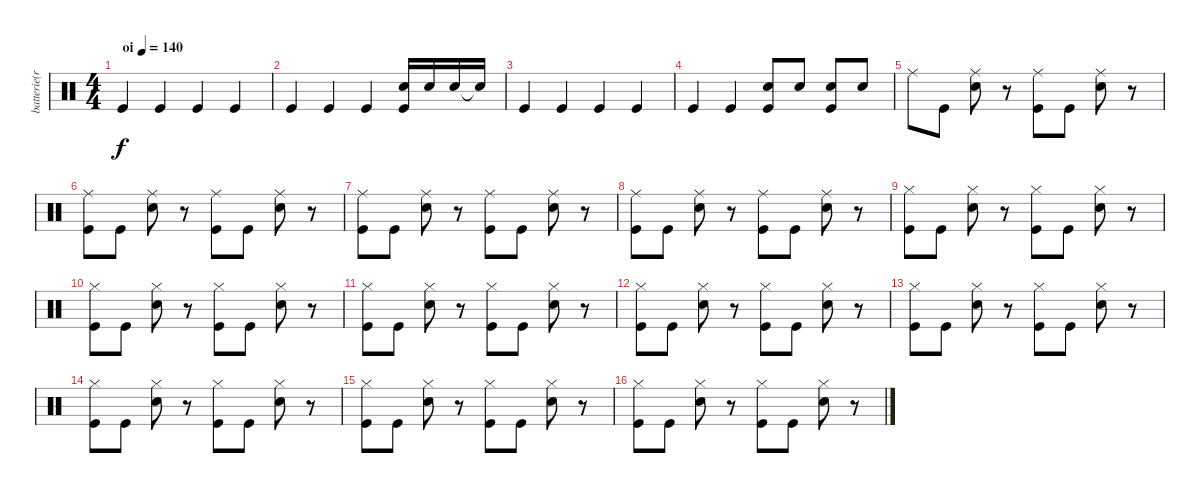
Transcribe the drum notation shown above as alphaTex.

\track ("batterie(ricky)" "batterie(r") {instrument percussion}
\staff {score}
\articulation defaults
\ts (4 4)
\tempo (140 "oi")
\clef neutral
\ks c "Kick (hit)".4{dy f} "Kick (hit)".4 "Kick (hit)".4 "Kick (hit)".4
|
"Kick (hit)".4 "Kick (hit)".4 "Kick (hit)".4 ("Snare (hit) 2" "Kick (hit)").16 "Snare (hit) 2".16 "Snare (hit) 2".16 "Snare (hit) 2"{t}.16 |
"Kick (hit)".4 "Kick (hit)".4 "Kick (hit)".4 "Kick (hit)".4 |
"Kick (hit)".4 "Kick (hit)".4 ("Snare (hit) 2" "Kick (hit)").8 "Snare (hit) 2".8 ("Snare (hit) 2" "Kick (hit)").8 "Snare (hit) 2".8 |
"Ride (middle)".8 "Kick (hit)".8 ("Ride (middle)" "Snare (hit) 2").8 r.8 ("Ride (middle)" "Kick (hit)").8 "Kick (hit)".8 ("Ride (middle)" "Snare (hit) 2").8 r.8 |
("Ride (middle)" "Kick (hit)").8 "Kick (hit)".8 ("Ride (middle)" "Snare (hit) 2").8 r.8 ("Ride (middle)" "Kick (hit)").8 "Kick (hit)".8 ("Ride (middle)" "Snare (hit) 2").8 r.8 |
("Ride (middle)" "Kick (hit)").8 "Kick (hit)".8 ("Ride (middle)" "Snare (hit) 2").8 r.8 ("Ride (middle)" "Kick (hit)").8 "Kick (hit)".8 ("Ride (middle)" "Snare (hit) 2").8 r.8 |
("Ride (middle)" "Kick (hit)").8 "Kick (hit)".8 ("Ride (middle)" "Snare (hit) 2").8 r.8 ("Ride (middle)" "Kick (hit)").8 "Kick (hit)".8 ("Ride (middle)" "Snare (hit) 2").8 r.8 |
("Hi-Hat (closed)" "Kick (hit)").8 "Kick (hit)".8 ("Hi-Hat (closed)" "Snare (hit) 2").8 r.8 ("Hi-Hat (closed)" "Kick (hit)").8 "Kick (hit)".8 ("Hi-Hat (closed)" "Snare (hit) 2").8 r.8 |
("Hi-Hat (closed)" "Kick (hit)").8 "Kick (hit)".8 ("Hi-Hat (closed)" "Snare (hit) 2").8 r.8 ("Hi-Hat (closed)" "Kick (hit)").8 "Kick (hit)".8 ("Hi-Hat (closed)" "Snare (hit) 2").8 r.8 |
("Hi-Hat (closed)" "Kick (hit)").8 "Kick (hit)".8 ("Hi-Hat (closed)" "Snare (hit) 2").8 r.8 ("Hi-Hat (closed)" "Kick (hit)").8 "Kick (hit)".8 ("Hi-Hat (closed)" "Snare (hit) 2").8 r.8 |
("Hi-Hat (closed)" "Kick (hit)").8 "Kick (hit)".8 ("Hi-Hat (closed)" "Snare (hit) 2").8 r.8 ("Hi-Hat (closed)" "Kick (hit)").8 "Kick (hit)".8 ("Hi-Hat (closed)" "Snare (hit) 2").8 r.8 |
("Hi-Hat (closed)" "Kick (hit)").8 "Kick (hit)".8 ("Hi-Hat (closed)" "Snare (hit) 2").8 r.8 ("Hi-Hat (closed)" "Kick (hit)").8 "Kick (hit)".8 ("Hi-Hat (closed)" "Snare (hit) 2").8 r.8 |
("Hi-Hat (closed)" "Kick (hit)").8 "Kick (hit)".8 ("Hi-Hat (closed)" "Snare (hit) 2").8 r.8 ("Hi-Hat (closed)" "Kick (hit)").8 "Kick (hit)".8 ("Hi-Hat (closed)" "Snare (hit) 2").8 r.8 |
("Hi-Hat (closed)" "Kick (hit)").8 "Kick (hit)".8 ("Hi-Hat (closed)" "Snare (hit) 2").8 r.8 ("Hi-Hat (closed)" "Kick (hit)").8 "Kick (hit)".8 ("Hi-Hat (closed)" "Snare (hit) 2").8 r.8 |
("Hi-Hat (closed)" "Kick (hit)").8 "Kick (hit)".8 ("Hi-Hat (closed)" "Snare (hit) 2").8 r.8 ("Hi-Hat (closed)" "Kick (hit)").8 "Kick (hit)".8 ("Hi-Hat (closed)" "Snare (hit) 2").8 r.8
